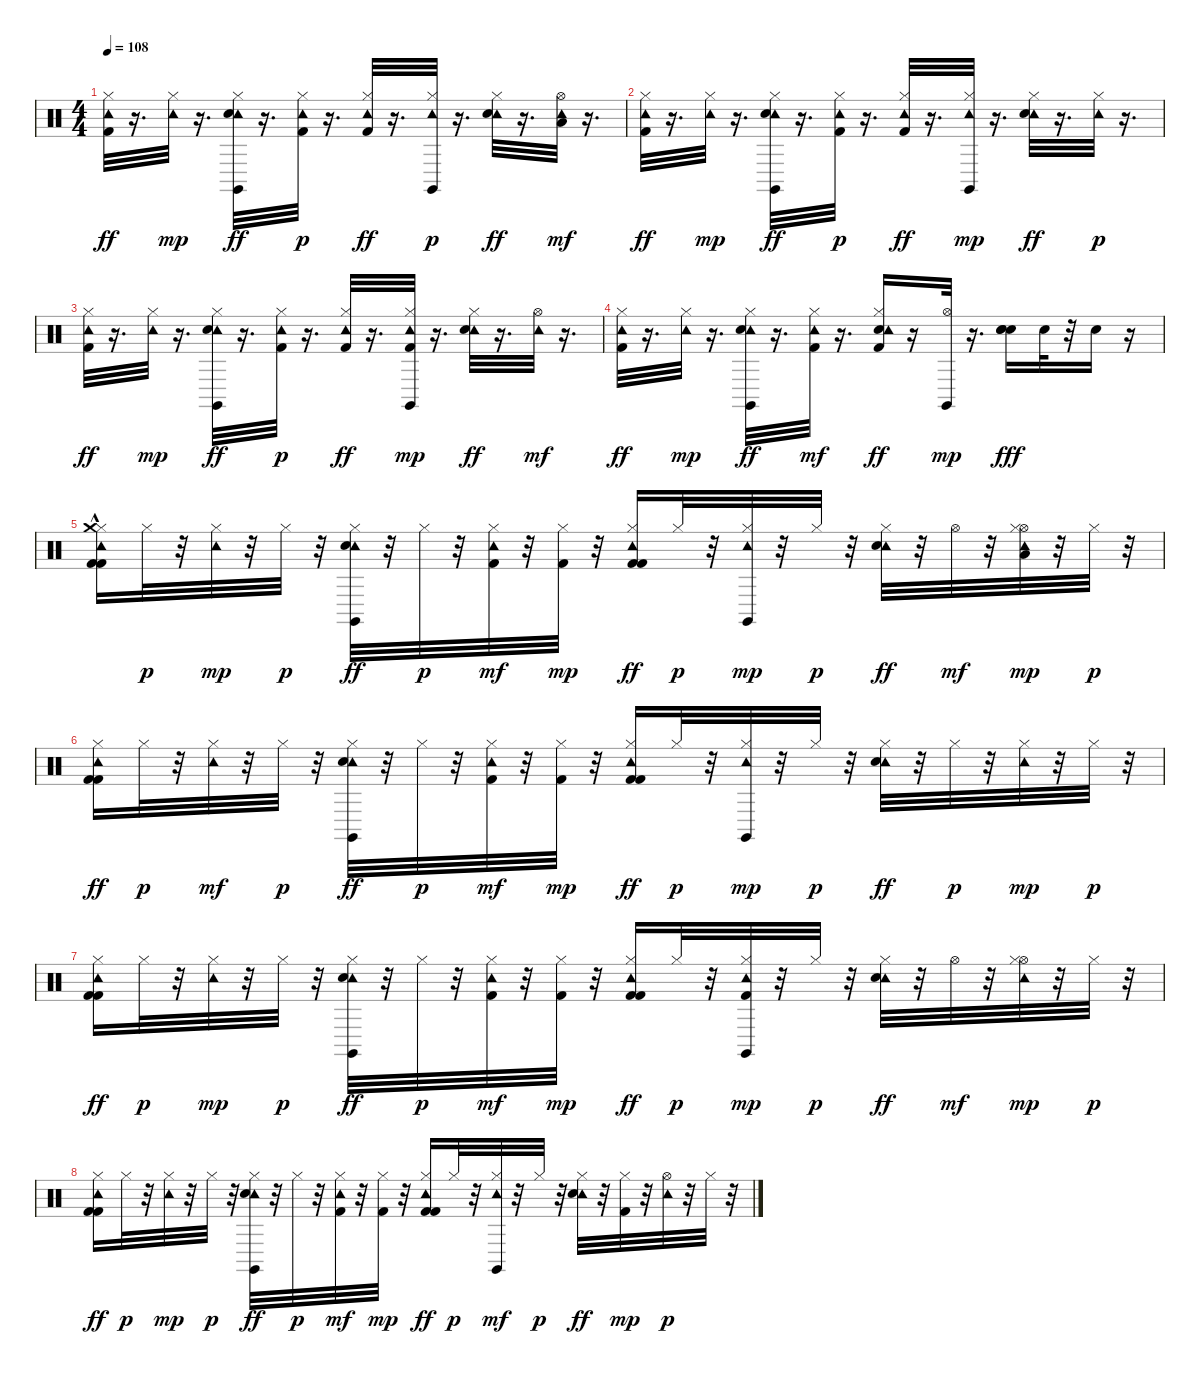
\track "" {instrument percussion}
\staff {score}
\articulation defaults
\ts (4 4)
\tempo 108
\clef neutral
\ks c
("Hi-Hat (closed)" "Tambourine (hit)" "Kick (hit) 2").32{dy ff} r.16{d} ("Hi-Hat (closed)" "Tambourine (hit)").32{dy mp} r.16{d} ("Hi-Hat (closed)" "Tambourine (hit)" "Claves (hit)" "Snare (hit) 2").32{dy ff} r.16{d} ("Hi-Hat (closed)" "Tambourine (hit)" "Kick (hit) 2").32{dy p} r.16{d} ("Tambourine (hit)" "Hi-Hat (closed)" "Kick (hit) 2").32{dy ff} r.16{d} ("Tambourine (hit)" "Hi-Hat (closed)" "Claves (hit)").32{dy p} r.16{d} ("Hi-Hat (closed)" "Tambourine (hit)" "Snare (hit) 2").32{dy ff} r.16{d} ("Tambourine (hit)" "Hi-Hat (open)" "Low Tom (hit)").32{dy mf} r.16{d} |
("Hi-Hat (closed)" "Tambourine (hit)" "Kick (hit) 2").32{dy ff} r.16{d} ("Hi-Hat (closed)" "Tambourine (hit)").32{dy mp} r.16{d} ("Hi-Hat (closed)" "Tambourine (hit)" "Claves (hit)" "Snare (hit) 2").32{dy ff} r.16{d} ("Hi-Hat (closed)" "Tambourine (hit)" "Kick (hit) 2").32{dy p} r.16{d} ("Tambourine (hit)" "Hi-Hat (closed)" "Kick (hit) 2").32{dy ff} r.16{d} ("Hi-Hat (closed)" "Tambourine (hit)" "Claves (hit)").32{dy mp} r.16{d} ("Hi-Hat (closed)" "Tambourine (hit)" "Snare (hit) 2").32{dy ff} r.16{d} ("Hi-Hat (closed)" "Tambourine (hit)").32{dy p} r.16{d} |
("Hi-Hat (closed)" "Tambourine (hit)" "Kick (hit) 2").32{dy ff} r.16{d} ("Tambourine (hit)" "Hi-Hat (closed)").32{dy mp} r.16{d} ("Hi-Hat (closed)" "Tambourine (hit)" "Claves (hit)" "Snare (hit) 2").32{dy ff} r.16{d} ("Hi-Hat (closed)" "Tambourine (hit)" "Kick (hit) 2").32{dy p} r.16{d} ("Hi-Hat (closed)" "Tambourine (hit)" "Kick (hit) 2").32{dy ff} r.16{d} ("Tambourine (hit)" "Hi-Hat (closed)" "Claves (hit)" "Kick (hit) 2").32{dy mp} r.16{d} ("Hi-Hat (closed)" "Tambourine (hit)" "Snare (hit) 2").32{dy ff} r.16{d} ("Tambourine (hit)" "Hi-Hat (open)").32{dy mf} r.16{d} |
("Hi-Hat (closed)" "Tambourine (hit)" "Kick (hit) 2").32{dy ff} r.16{d} ("Tambourine (hit)" "Hi-Hat (closed)").32{dy mp} r.16{d} ("Hi-Hat (closed)" "Tambourine (hit)" "Claves (hit)" "Snare (hit) 2").32{dy ff} r.16{d} ("Hi-Hat (closed)" "Tambourine (hit)" "Kick (hit) 2").32{dy mf} r.16{d} ("Snare (hit) 2" "Tambourine (hit)" "Hi-Hat (closed)" "Kick (hit) 2").16{dy ff} r.16 ("Claves (hit)" "Hi-Hat (open)").32{dy mp} r.16{d} ("Snare (hit) 2" "Snare (hit) 2" "Snare (hit) 2").16{dy fff} "Snare (hit) 2".32 r.32 "Snare (hit) 2".16 r.16 |
("Tambourine (hit)" "Kick (hit) 2" "Hi-Hat (closed)" "Kick (hit) 2" "Crash medium (hit)"{hac}).16 "Hi-Hat (closed)".32{dy p} r.32 ("Hi-Hat (closed)" "Tambourine (hit)").32{dy mp} r.32 "Hi-Hat (closed)".32{dy p} r.32 ("Tambourine (hit)" "Claves (hit)" "Hi-Hat (closed)" "Snare (hit) 2").32{dy ff} r.32 "Hi-Hat (closed)".32{dy p} r.32 ("Tambourine (hit)" "Kick (hit) 2" "Hi-Hat (closed)").32{dy mf} r.32 ("Hi-Hat (closed)" "Kick (hit) 2").32{dy mp} r.32 ("Kick (hit) 2" "Tambourine (hit)" "Hi-Hat (closed)" "Kick (hit) 2").16{dy ff} "Hi-Hat (closed)".32{dy p} r.32 ("Tambourine (hit)" "Claves (hit)" "Hi-Hat (closed)").32{dy mp} r.32 "Hi-Hat (closed)".32{dy p} r.32 ("Tambourine (hit)" "Hi-Hat (closed)" "Snare (hit) 2").32{dy ff} r.32 "Hi-Hat (open)".32{dy mf} r.32 ("Tambourine (hit)" "Hi-Hat (open)" "Low Tom (hit)" "Hi-Hat (closed)").32{dy mp} r.32 "Hi-Hat (closed)".32{dy p} r.32 |
("Kick (hit) 2" "Tambourine (hit)" "Hi-Hat (closed)" "Kick (hit) 2").16{dy ff} "Hi-Hat (closed)".32{dy p} r.32 ("Tambourine (hit)" "Hi-Hat (closed)").32{dy mf} r.32 "Hi-Hat (closed)".32{dy p} r.32 ("Tambourine (hit)" "Claves (hit)" "Hi-Hat (closed)" "Snare (hit) 2").32{dy ff} r.32 "Hi-Hat (closed)".32{dy p} r.32 ("Kick (hit) 2" "Tambourine (hit)" "Hi-Hat (closed)").32{dy mf} r.32 ("Hi-Hat (closed)" "Kick (hit) 2").32{dy mp} r.32 ("Tambourine (hit)" "Kick (hit) 2" "Hi-Hat (closed)" "Kick (hit) 2").16{dy ff} "Hi-Hat (closed)".32{dy p} r.32 ("Tambourine (hit)" "Claves (hit)" "Hi-Hat (closed)").32{dy mp} r.32 "Hi-Hat (closed)".32{dy p} r.32 ("Tambourine (hit)" "Hi-Hat (closed)" "Snare (hit) 2").32{dy ff} r.32 "Hi-Hat (closed)".32{dy p} r.32 ("Tambourine (hit)" "Hi-Hat (closed)").32{dy mp} r.32 "Hi-Hat (closed)".32{dy p} r.32 |
("Kick (hit) 2" "Tambourine (hit)" "Hi-Hat (closed)" "Kick (hit) 2").16{dy ff} "Hi-Hat (closed)".32{dy p} r.32 ("Hi-Hat (closed)" "Tambourine (hit)").32{dy mp} r.32 "Hi-Hat (closed)".32{dy p} r.32 ("Tambourine (hit)" "Claves (hit)" "Hi-Hat (closed)" "Snare (hit) 2").32{dy ff} r.32 "Hi-Hat (closed)".32{dy p} r.32 ("Kick (hit) 2" "Tambourine (hit)" "Hi-Hat (closed)").32{dy mf} r.32 ("Hi-Hat (closed)" "Kick (hit) 2").32{dy mp} r.32 ("Tambourine (hit)" "Kick (hit) 2" "Hi-Hat (closed)" "Kick (hit) 2").16{dy ff} "Hi-Hat (closed)".32{dy p} r.32 ("Kick (hit) 2" "Tambourine (hit)" "Claves (hit)" "Hi-Hat (closed)").32{dy mp} r.32 "Hi-Hat (closed)".32{dy p} r.32 ("Tambourine (hit)" "Hi-Hat (closed)" "Snare (hit) 2").32{dy ff} r.32 "Hi-Hat (open)".32{dy mf} r.32 ("Tambourine (hit)" "Hi-Hat (open)" "Hi-Hat (closed)").32{dy mp} r.32 "Hi-Hat (closed)".32{dy p} r.32 |
("Kick (hit) 2" "Tambourine (hit)" "Hi-Hat (closed)" "Kick (hit) 2").16{dy ff} "Hi-Hat (closed)".32{dy p} r.32 ("Tambourine (hit)" "Hi-Hat (closed)").32{dy mp} r.32 "Hi-Hat (closed)".32{dy p} r.32 ("Tambourine (hit)" "Claves (hit)" "Hi-Hat (closed)" "Snare (hit) 2").32{dy ff} r.32 "Hi-Hat (closed)".32{dy p} r.32 ("Kick (hit) 2" "Tambourine (hit)" "Hi-Hat (closed)").32{dy mf} r.32 ("Hi-Hat (closed)" "Kick (hit) 2").32{dy mp} r.32 ("Kick (hit) 2" "Tambourine (hit)" "Hi-Hat (closed)" "Kick (hit) 2").16{dy ff} "Hi-Hat (closed)".32{dy p} r.32 ("Tambourine (hit)" "Claves (hit)" "Hi-Hat (closed)").32{dy mf} r.32 "Hi-Hat (closed)".32{dy p} r.32 ("Tambourine (hit)" "Hi-Hat (closed)" "Snare (hit) 2").32{dy ff} r.32 ("Hi-Hat (closed)" "Kick (hit) 2").32{dy mp} r.32 ("Tambourine (hit)" "Hi-Hat (open)").32{dy p} r.32 "Hi-Hat (closed)".32 r.32
